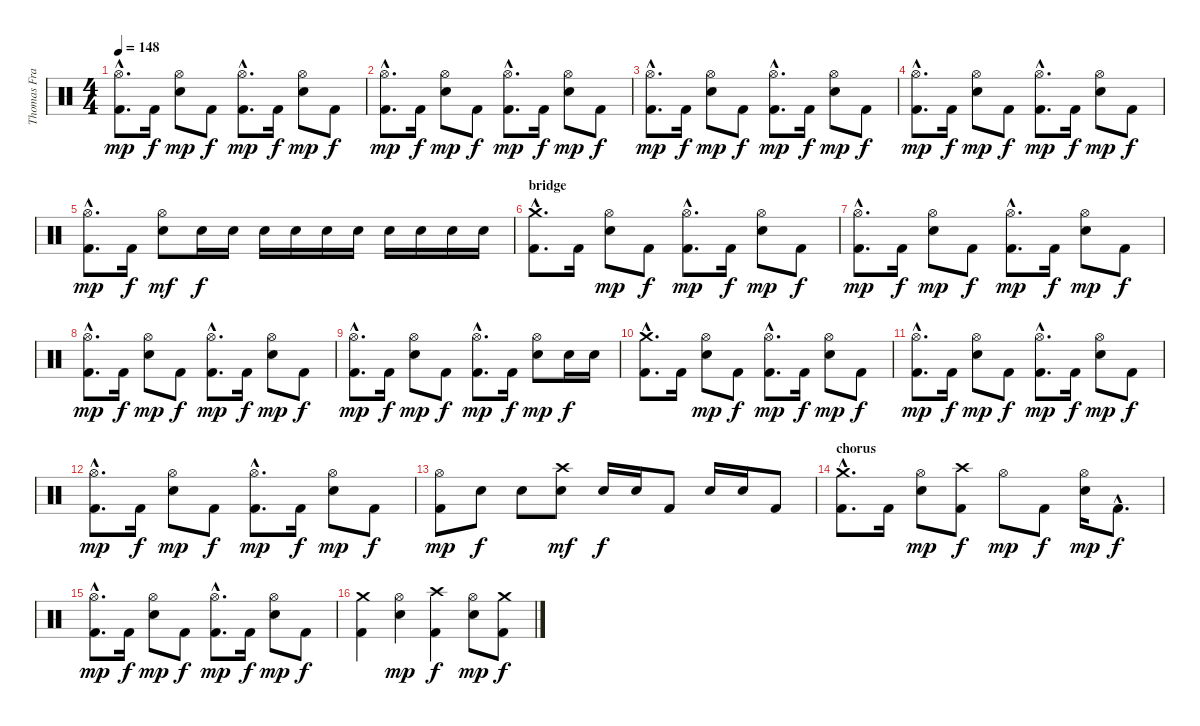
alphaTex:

\track ("Thomas Franke" "Thomas Fra") {instrument percussion}
\staff {score}
\articulation defaults
\ts (4 4)
\tempo 148
\clef neutral
\ks c
("Kick (hit) 2"{hac} "Hi-Hat (open)"{hac}).8{d dy mp} "Kick (hit) 2".16{dy f} ("Hi-Hat (open)" "Snare (hit) 2").8{dy mp} "Kick (hit) 2".8{dy f} ("Kick (hit) 2"{hac} "Hi-Hat (open)"{hac}).8{d dy mp} "Kick (hit) 2".16{dy f} ("Hi-Hat (open)" "Snare (hit) 2").8{dy mp} "Kick (hit) 2".8{dy f} |
("Kick (hit) 2"{hac} "Hi-Hat (open)"{hac}).8{d dy mp} "Kick (hit) 2".16{dy f} ("Hi-Hat (open)" "Snare (hit) 2").8{dy mp} "Kick (hit) 2".8{dy f} ("Kick (hit) 2"{hac} "Hi-Hat (open)"{hac}).8{d dy mp} "Kick (hit) 2".16{dy f} ("Hi-Hat (open)" "Snare (hit) 2").8{dy mp} "Kick (hit) 2".8{dy f} |
("Kick (hit) 2"{hac} "Hi-Hat (open)"{hac}).8{d dy mp} "Kick (hit) 2".16{dy f} ("Hi-Hat (open)" "Snare (hit) 2").8{dy mp} "Kick (hit) 2".8{dy f} ("Kick (hit) 2"{hac} "Hi-Hat (open)"{hac}).8{d dy mp} "Kick (hit) 2".16{dy f} ("Hi-Hat (open)" "Snare (hit) 2").8{dy mp} "Kick (hit) 2".8{dy f} |
("Kick (hit) 2"{hac} "Hi-Hat (open)"{hac}).8{d dy mp} "Kick (hit) 2".16{dy f} ("Hi-Hat (open)" "Snare (hit) 2").8{dy mp} "Kick (hit) 2".8{dy f} ("Kick (hit) 2"{hac} "Hi-Hat (open)"{hac}).8{d dy mp} "Kick (hit) 2".16{dy f} ("Hi-Hat (open)" "Snare (hit) 2").8{dy mp} "Kick (hit) 2".8{dy f} |
("Kick (hit) 2"{hac} "Hi-Hat (open)"{hac}).8{d dy mp} "Kick (hit) 2".16{dy f} ("Hi-Hat (open)" "Snare (hit) 2").8{dy mf} "Snare (hit) 2".16{dy f} "Snare (hit) 2".16 "Snare (hit) 2".16 "Snare (hit) 2".16 "Snare (hit) 2".16 "Snare (hit) 2".16 "Snare (hit) 2".16 "Snare (hit) 2".16 "Snare (hit) 2".16 "Snare (hit) 2".16 |
\section ("" "bridge")
("Kick (hit) 2"{hac} "Crash medium (hit)"{hac}).8{d} "Kick (hit) 2".16 ("Hi-Hat (open)" "Snare (hit) 2").8{dy mp} "Kick (hit) 2".8{dy f} ("Kick (hit) 2"{hac} "Hi-Hat (open)"{hac}).8{d dy mp} "Kick (hit) 2".16{dy f} ("Hi-Hat (open)" "Snare (hit) 2").8{dy mp} "Kick (hit) 2".8{dy f} |
("Kick (hit) 2"{hac} "Hi-Hat (open)"{hac}).8{d dy mp} "Kick (hit) 2".16{dy f} ("Hi-Hat (open)" "Snare (hit) 2").8{dy mp} "Kick (hit) 2".8{dy f} ("Kick (hit) 2"{hac} "Hi-Hat (open)"{hac}).8{d dy mp} "Kick (hit) 2".16{dy f} ("Hi-Hat (open)" "Snare (hit) 2").8{dy mp} "Kick (hit) 2".8{dy f} |
("Kick (hit) 2"{hac} "Hi-Hat (open)"{hac}).8{d dy mp} "Kick (hit) 2".16{dy f} ("Hi-Hat (open)" "Snare (hit) 2").8{dy mp} "Kick (hit) 2".8{dy f} ("Kick (hit) 2"{hac} "Hi-Hat (open)"{hac}).8{d dy mp} "Kick (hit) 2".16{dy f} ("Hi-Hat (open)" "Snare (hit) 2").8{dy mp} "Kick (hit) 2".8{dy f} |
("Kick (hit) 2"{hac} "Hi-Hat (open)"{hac}).8{d dy mp} "Kick (hit) 2".16{dy f} ("Hi-Hat (open)" "Snare (hit) 2").8{dy mp} "Kick (hit) 2".8{dy f} ("Kick (hit) 2"{hac} "Hi-Hat (open)"{hac}).8{d dy mp} "Kick (hit) 2".16{dy f} ("Hi-Hat (open)" "Snare (hit) 2").8{dy mp} "Snare (hit) 2".16{dy f} "Snare (hit) 2".16 |
("Kick (hit) 2"{hac} "Crash medium (hit)"{hac}).8{d} "Kick (hit) 2".16 ("Hi-Hat (open)" "Snare (hit) 2").8{dy mp} "Kick (hit) 2".8{dy f} ("Kick (hit) 2"{hac} "Hi-Hat (open)"{hac}).8{d dy mp} "Kick (hit) 2".16{dy f} ("Hi-Hat (open)" "Snare (hit) 2").8{dy mp} "Kick (hit) 2".8{dy f} |
("Kick (hit) 2"{hac} "Hi-Hat (open)"{hac}).8{d dy mp} "Kick (hit) 2".16{dy f} ("Hi-Hat (open)" "Snare (hit) 2").8{dy mp} "Kick (hit) 2".8{dy f} ("Kick (hit) 2"{hac} "Hi-Hat (open)"{hac}).8{d dy mp} "Kick (hit) 2".16{dy f} ("Hi-Hat (open)" "Snare (hit) 2").8{dy mp} "Kick (hit) 2".8{dy f} |
("Kick (hit) 2"{hac} "Hi-Hat (open)"{hac}).8{d dy mp} "Kick (hit) 2".16{dy f} ("Hi-Hat (open)" "Snare (hit) 2").8{dy mp} "Kick (hit) 2".8{dy f} ("Kick (hit) 2"{hac} "Hi-Hat (open)"{hac}).8{d dy mp} "Kick (hit) 2".16{dy f} ("Hi-Hat (open)" "Snare (hit) 2").8{dy mp} "Kick (hit) 2".8{dy f} |
("Kick (hit) 2" "Hi-Hat (open)").8{dy mp} "Snare (hit) 2".8{dy f} "Snare (hit) 2".8 ("Crash high (hit)" "Snare (hit) 2").8{dy mf} "Snare (hit) 2".16{dy f} "Snare (hit) 2".16 "Kick (hit) 2".8 "Snare (hit) 2".16 "Snare (hit) 2".16 "Kick (hit) 2".8 |
\section ("" "chorus")
("Kick (hit) 2"{hac} "Crash medium (hit)"{hac}).8{d} "Kick (hit) 2".16 ("Hi-Hat (open)" "Snare (hit) 2").8{dy mp} ("Kick (hit) 2" "Crash high (hit)").8{dy f} "Hi-Hat (open)".8{dy mp} "Kick (hit) 2".8{dy f} ("Hi-Hat (open)" "Snare (hit) 2").16{dy mp} "Kick (hit) 2"{hac}.8{d dy f} |
("Kick (hit) 2"{hac} "Hi-Hat (open)"{hac}).8{d dy mp} "Kick (hit) 2".16{dy f} ("Hi-Hat (open)" "Snare (hit) 2").8{dy mp} "Kick (hit) 2".8{dy f} ("Kick (hit) 2"{hac} "Hi-Hat (open)"{hac}).8{d dy mp} "Kick (hit) 2".16{dy f} ("Hi-Hat (open)" "Snare (hit) 2").8{dy mp} "Kick (hit) 2".8{dy f} |
("Kick (hit) 2" "Crash medium (hit)").4 ("Hi-Hat (open)" "Snare (hit) 2").4{dy mp} ("Kick (hit) 2" "Crash high (hit)").4{dy f} ("Hi-Hat (open)" "Snare (hit) 2").8{dy mp} ("Kick (hit) 2" "Crash medium (hit)").8{dy f}
